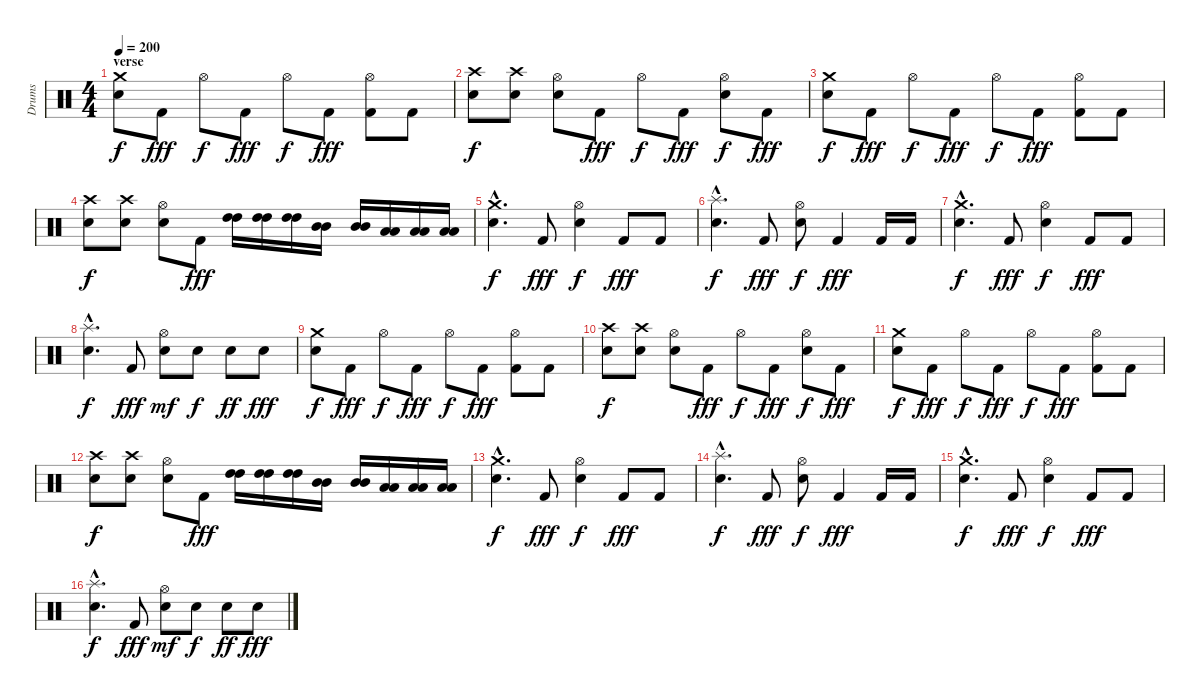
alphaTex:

\track ("Drums" "Drums") {instrument percussion}
\staff {score}
\articulation defaults
\ts (4 4)
\section ("" "verse")
\tempo 200
\clef neutral
\ks c
("Crash medium (hit)" "Electric Snare (hit)").8{dy f} "Kick (hit) 2".8{dy fff} "Hi-Hat (open)".8{dy f} "Kick (hit) 2".8{dy fff} "Hi-Hat (open)".8{dy f} "Kick (hit) 2".8{dy fff} ("Hi-Hat (open)" "Kick (hit) 2").8 "Kick (hit) 2".8 |
("Crash high (hit)" "Electric Snare (hit)").8{dy f} ("Crash high (hit)" "Electric Snare (hit)").8 ("Hi-Hat (open)" "Electric Snare (hit)").8 "Kick (hit) 2".8{dy fff} "Hi-Hat (open)".8{dy f} "Kick (hit) 2".8{dy fff} ("Hi-Hat (open)" "Electric Snare (hit)").8{dy f} "Kick (hit) 2".8{dy fff} |
("Crash medium (hit)" "Electric Snare (hit)").8{dy f} "Kick (hit) 2".8{dy fff} "Hi-Hat (open)".8{dy f} "Kick (hit) 2".8{dy fff} "Hi-Hat (open)".8{dy f} "Kick (hit) 2".8{dy fff} ("Hi-Hat (open)" "Kick (hit) 2").8 "Kick (hit) 2".8 |
("Crash high (hit)" "Electric Snare (hit)").8{dy f} ("Crash high (hit)" "Electric Snare (hit)").8 ("Hi-Hat (open)" "Electric Snare (hit)").8 "Kick (hit) 2".8{dy fff} ("High Tom (hit)" "High Tom (hit)").16 ("High Tom (hit)" "High Tom (hit)").16 ("High Tom (hit)" "High Tom (hit)").16 ("Mid Tom (hit)" "Mid Tom (hit)").16 ("Mid Tom (hit)" "Mid Tom (hit)").16 ("Low Tom (hit)" "Low Tom (hit)").16 ("Low Tom (hit)" "Low Tom (hit)").16 ("Low Tom (hit)" "Low Tom (hit)").16 |
("Electric Snare (hit)"{hac} "Crash medium (hit)"{hac}).4{d dy f} "Kick (hit) 2".8{dy fff} ("Hi-Hat (open)" "Electric Snare (hit)").4{dy f} "Kick (hit) 2".8{dy fff} "Kick (hit) 2".8 |
("Splash (hit)"{hac} "Electric Snare (hit)"{hac}).4{d dy f} "Kick (hit) 2".8{dy fff} ("Hi-Hat (open)" "Electric Snare (hit)").8{dy f} "Kick (hit) 2".4{dy fff} "Kick (hit) 2".16 "Kick (hit) 2".16 |
("Electric Snare (hit)"{hac} "Crash medium (hit)"{hac}).4{d dy f} "Kick (hit) 2".8{dy fff} ("Hi-Hat (open)" "Electric Snare (hit)").4{dy f} "Kick (hit) 2".8{dy fff} "Kick (hit) 2".8 |
("Splash (hit)"{hac} "Electric Snare (hit)"{hac}).4{d dy f} "Kick (hit) 2".8{dy fff} ("Hi-Hat (open)" "Electric Snare (hit)").8{dy mf} "Electric Snare (hit)".8{dy f} "Electric Snare (hit)".8{dy ff} "Electric Snare (hit)".8{dy fff} |
("Crash medium (hit)" "Electric Snare (hit)").8{dy f} "Kick (hit) 2".8{dy fff} "Hi-Hat (open)".8{dy f} "Kick (hit) 2".8{dy fff} "Hi-Hat (open)".8{dy f} "Kick (hit) 2".8{dy fff} ("Hi-Hat (open)" "Kick (hit) 2").8 "Kick (hit) 2".8 |
("Crash high (hit)" "Electric Snare (hit)").8{dy f} ("Crash high (hit)" "Electric Snare (hit)").8 ("Hi-Hat (open)" "Electric Snare (hit)").8 "Kick (hit) 2".8{dy fff} "Hi-Hat (open)".8{dy f} "Kick (hit) 2".8{dy fff} ("Hi-Hat (open)" "Electric Snare (hit)").8{dy f} "Kick (hit) 2".8{dy fff} |
("Crash medium (hit)" "Electric Snare (hit)").8{dy f} "Kick (hit) 2".8{dy fff} "Hi-Hat (open)".8{dy f} "Kick (hit) 2".8{dy fff} "Hi-Hat (open)".8{dy f} "Kick (hit) 2".8{dy fff} ("Hi-Hat (open)" "Kick (hit) 2").8 "Kick (hit) 2".8 |
("Crash high (hit)" "Electric Snare (hit)").8{dy f} ("Crash high (hit)" "Electric Snare (hit)").8 ("Hi-Hat (open)" "Electric Snare (hit)").8 "Kick (hit) 2".8{dy fff} ("High Tom (hit)" "High Tom (hit)").16 ("High Tom (hit)" "High Tom (hit)").16 ("High Tom (hit)" "High Tom (hit)").16 ("Mid Tom (hit)" "Mid Tom (hit)").16 ("Mid Tom (hit)" "Mid Tom (hit)").16 ("Low Tom (hit)" "Low Tom (hit)").16 ("Low Tom (hit)" "Low Tom (hit)").16 ("Low Tom (hit)" "Low Tom (hit)").16 |
("Electric Snare (hit)"{hac} "Crash medium (hit)"{hac}).4{d dy f} "Kick (hit) 2".8{dy fff} ("Hi-Hat (open)" "Electric Snare (hit)").4{dy f} "Kick (hit) 2".8{dy fff} "Kick (hit) 2".8 |
("Splash (hit)"{hac} "Electric Snare (hit)"{hac}).4{d dy f} "Kick (hit) 2".8{dy fff} ("Hi-Hat (open)" "Electric Snare (hit)").8{dy f} "Kick (hit) 2".4{dy fff} "Kick (hit) 2".16 "Kick (hit) 2".16 |
("Electric Snare (hit)"{hac} "Crash medium (hit)"{hac}).4{d dy f} "Kick (hit) 2".8{dy fff} ("Hi-Hat (open)" "Electric Snare (hit)").4{dy f} "Kick (hit) 2".8{dy fff} "Kick (hit) 2".8 |
("Splash (hit)"{hac} "Electric Snare (hit)"{hac}).4{d dy f} "Kick (hit) 2".8{dy fff} ("Hi-Hat (open)" "Electric Snare (hit)").8{dy mf} "Electric Snare (hit)".8{dy f} "Electric Snare (hit)".8{dy ff} "Electric Snare (hit)".8{dy fff}
